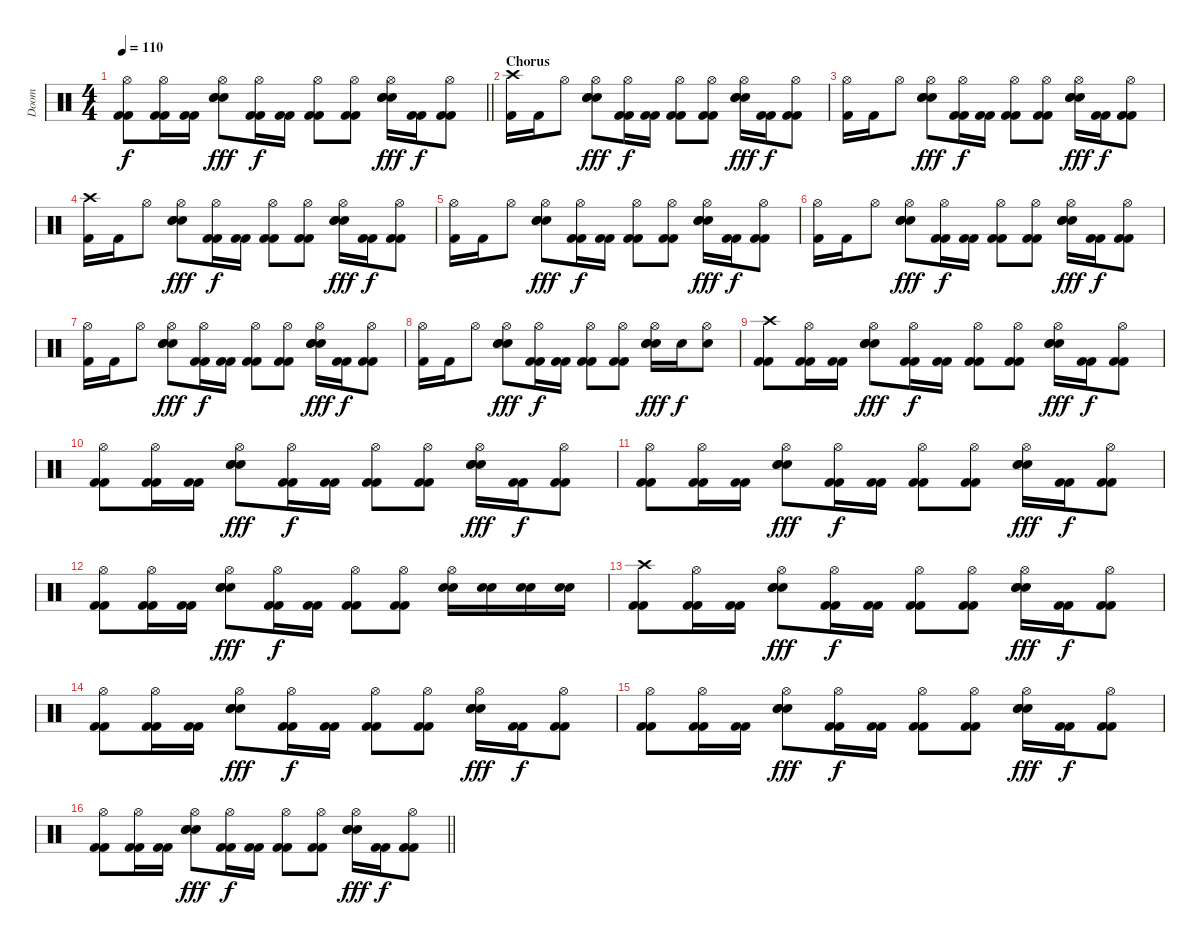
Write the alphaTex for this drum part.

\track ("Doom" "Doom") {instrument percussion}
\staff {score}
\articulation defaults
\ts (4 4)
\tempo 110
\clef neutral
\barLineRight lightlight
\ks c
("Hi-Hat (open)" "Kick (hit) 2" "Kick (hit) 2").8{dy f} ("Hi-Hat (open)" "Kick (hit) 2" "Kick (hit) 2").16 ("Kick (hit) 2" "Kick (hit) 2").16 ("Hi-Hat (open)" "Electric Snare (hit)" "Electric Snare (hit)" "Electric Snare (hit)").8{dy fff} ("Hi-Hat (open)" "Kick (hit) 2" "Kick (hit) 2").16{dy f} ("Kick (hit) 2" "Kick (hit) 2").16 ("Hi-Hat (open)" "Kick (hit) 2" "Kick (hit) 2").8 ("Hi-Hat (open)" "Kick (hit) 2" "Kick (hit) 2").8 ("Hi-Hat (open)" "Electric Snare (hit)" "Electric Snare (hit)" "Electric Snare (hit)").16{dy fff} ("Kick (hit) 2" "Kick (hit) 2").16{dy f} ("Hi-Hat (open)" "Kick (hit) 2" "Kick (hit) 2").8 |
\section ("" "Chorus")
("Crash high (hit)" "Kick (hit) 2").16 "Kick (hit) 2".16 "Hi-Hat (open)".8 ("Hi-Hat (open)" "Electric Snare (hit)" "Electric Snare (hit)" "Electric Snare (hit)").8{dy fff} ("Hi-Hat (open)" "Kick (hit) 2" "Kick (hit) 2").16{dy f} ("Kick (hit) 2" "Kick (hit) 2").16 ("Hi-Hat (open)" "Kick (hit) 2" "Kick (hit) 2").8 ("Hi-Hat (open)" "Kick (hit) 2" "Kick (hit) 2").8 ("Hi-Hat (open)" "Electric Snare (hit)" "Electric Snare (hit)" "Electric Snare (hit)").16{dy fff} ("Kick (hit) 2" "Kick (hit) 2").16{dy f} ("Hi-Hat (open)" "Kick (hit) 2" "Kick (hit) 2").8 |
("Hi-Hat (open)" "Kick (hit) 2").16 "Kick (hit) 2".16 "Hi-Hat (open)".8 ("Hi-Hat (open)" "Electric Snare (hit)" "Electric Snare (hit)" "Electric Snare (hit)").8{dy fff} ("Hi-Hat (open)" "Kick (hit) 2" "Kick (hit) 2").16{dy f} ("Kick (hit) 2" "Kick (hit) 2").16 ("Hi-Hat (open)" "Kick (hit) 2" "Kick (hit) 2").8 ("Hi-Hat (open)" "Kick (hit) 2" "Kick (hit) 2").8 ("Hi-Hat (open)" "Electric Snare (hit)" "Electric Snare (hit)" "Electric Snare (hit)").16{dy fff} ("Kick (hit) 2" "Kick (hit) 2").16{dy f} ("Hi-Hat (open)" "Kick (hit) 2" "Kick (hit) 2").8 |
("Crash high (hit)" "Kick (hit) 2").16 "Kick (hit) 2".16 "Hi-Hat (open)".8 ("Hi-Hat (open)" "Electric Snare (hit)" "Electric Snare (hit)" "Electric Snare (hit)").8{dy fff} ("Hi-Hat (open)" "Kick (hit) 2" "Kick (hit) 2").16{dy f} ("Kick (hit) 2" "Kick (hit) 2").16 ("Hi-Hat (open)" "Kick (hit) 2" "Kick (hit) 2").8 ("Hi-Hat (open)" "Kick (hit) 2" "Kick (hit) 2").8 ("Hi-Hat (open)" "Electric Snare (hit)" "Electric Snare (hit)" "Electric Snare (hit)").16{dy fff} ("Kick (hit) 2" "Kick (hit) 2").16{dy f} ("Hi-Hat (open)" "Kick (hit) 2" "Kick (hit) 2").8 |
("Hi-Hat (open)" "Kick (hit) 2").16 "Kick (hit) 2".16 "Hi-Hat (open)".8 ("Hi-Hat (open)" "Electric Snare (hit)" "Electric Snare (hit)" "Electric Snare (hit)").8{dy fff} ("Hi-Hat (open)" "Kick (hit) 2" "Kick (hit) 2").16{dy f} ("Kick (hit) 2" "Kick (hit) 2").16 ("Hi-Hat (open)" "Kick (hit) 2" "Kick (hit) 2").8 ("Hi-Hat (open)" "Kick (hit) 2" "Kick (hit) 2").8 ("Hi-Hat (open)" "Electric Snare (hit)" "Electric Snare (hit)" "Electric Snare (hit)").16{dy fff} ("Kick (hit) 2" "Kick (hit) 2").16{dy f} ("Hi-Hat (open)" "Kick (hit) 2" "Kick (hit) 2").8 |
("Hi-Hat (open)" "Kick (hit) 2").16 "Kick (hit) 2".16 "Hi-Hat (open)".8 ("Hi-Hat (open)" "Electric Snare (hit)" "Electric Snare (hit)" "Electric Snare (hit)").8{dy fff} ("Hi-Hat (open)" "Kick (hit) 2" "Kick (hit) 2").16{dy f} ("Kick (hit) 2" "Kick (hit) 2").16 ("Hi-Hat (open)" "Kick (hit) 2" "Kick (hit) 2").8 ("Hi-Hat (open)" "Kick (hit) 2" "Kick (hit) 2").8 ("Hi-Hat (open)" "Electric Snare (hit)" "Electric Snare (hit)" "Electric Snare (hit)").16{dy fff} ("Kick (hit) 2" "Kick (hit) 2").16{dy f} ("Hi-Hat (open)" "Kick (hit) 2" "Kick (hit) 2").8 |
("Hi-Hat (open)" "Kick (hit) 2").16 "Kick (hit) 2".16 "Hi-Hat (open)".8 ("Hi-Hat (open)" "Electric Snare (hit)" "Electric Snare (hit)" "Electric Snare (hit)").8{dy fff} ("Hi-Hat (open)" "Kick (hit) 2" "Kick (hit) 2").16{dy f} ("Kick (hit) 2" "Kick (hit) 2").16 ("Hi-Hat (open)" "Kick (hit) 2" "Kick (hit) 2").8 ("Hi-Hat (open)" "Kick (hit) 2" "Kick (hit) 2").8 ("Hi-Hat (open)" "Electric Snare (hit)" "Electric Snare (hit)" "Electric Snare (hit)").16{dy fff} ("Kick (hit) 2" "Kick (hit) 2").16{dy f} ("Hi-Hat (open)" "Kick (hit) 2" "Kick (hit) 2").8 |
("Hi-Hat (open)" "Kick (hit) 2").16 "Kick (hit) 2".16 "Hi-Hat (open)".8 ("Hi-Hat (open)" "Electric Snare (hit)" "Electric Snare (hit)" "Electric Snare (hit)").8{dy fff} ("Hi-Hat (open)" "Kick (hit) 2" "Kick (hit) 2").16{dy f} ("Kick (hit) 2" "Kick (hit) 2").16 ("Hi-Hat (open)" "Kick (hit) 2" "Kick (hit) 2").8 ("Hi-Hat (open)" "Kick (hit) 2" "Kick (hit) 2").8 ("Hi-Hat (open)" "Electric Snare (hit)" "Electric Snare (hit)" "Electric Snare (hit)").16{dy fff} "Electric Snare (hit)".16{dy f} ("Electric Snare (hit)" "Hi-Hat (open)").8 |
("Crash high (hit)" "Kick (hit) 2" "Kick (hit) 2").8 ("Hi-Hat (open)" "Kick (hit) 2" "Kick (hit) 2").16 ("Kick (hit) 2" "Kick (hit) 2").16 ("Hi-Hat (open)" "Electric Snare (hit)" "Electric Snare (hit)" "Electric Snare (hit)").8{dy fff} ("Hi-Hat (open)" "Kick (hit) 2" "Kick (hit) 2").16{dy f} ("Kick (hit) 2" "Kick (hit) 2").16 ("Hi-Hat (open)" "Kick (hit) 2" "Kick (hit) 2").8 ("Hi-Hat (open)" "Kick (hit) 2" "Kick (hit) 2").8 ("Hi-Hat (open)" "Electric Snare (hit)" "Electric Snare (hit)" "Electric Snare (hit)").16{dy fff} ("Kick (hit) 2" "Kick (hit) 2").16{dy f} ("Hi-Hat (open)" "Kick (hit) 2" "Kick (hit) 2").8 |
("Hi-Hat (open)" "Kick (hit) 2" "Kick (hit) 2").8 ("Hi-Hat (open)" "Kick (hit) 2" "Kick (hit) 2").16 ("Kick (hit) 2" "Kick (hit) 2").16 ("Hi-Hat (open)" "Electric Snare (hit)" "Electric Snare (hit)" "Electric Snare (hit)").8{dy fff} ("Hi-Hat (open)" "Kick (hit) 2" "Kick (hit) 2").16{dy f} ("Kick (hit) 2" "Kick (hit) 2").16 ("Hi-Hat (open)" "Kick (hit) 2" "Kick (hit) 2").8 ("Hi-Hat (open)" "Kick (hit) 2" "Kick (hit) 2").8 ("Hi-Hat (open)" "Electric Snare (hit)" "Electric Snare (hit)" "Electric Snare (hit)").16{dy fff} ("Kick (hit) 2" "Kick (hit) 2").16{dy f} ("Hi-Hat (open)" "Kick (hit) 2" "Kick (hit) 2").8 |
("Hi-Hat (open)" "Kick (hit) 2" "Kick (hit) 2").8 ("Hi-Hat (open)" "Kick (hit) 2" "Kick (hit) 2").16 ("Kick (hit) 2" "Kick (hit) 2").16 ("Hi-Hat (open)" "Electric Snare (hit)" "Electric Snare (hit)" "Electric Snare (hit)").8{dy fff} ("Hi-Hat (open)" "Kick (hit) 2" "Kick (hit) 2").16{dy f} ("Kick (hit) 2" "Kick (hit) 2").16 ("Hi-Hat (open)" "Kick (hit) 2" "Kick (hit) 2").8 ("Hi-Hat (open)" "Kick (hit) 2" "Kick (hit) 2").8 ("Hi-Hat (open)" "Electric Snare (hit)" "Electric Snare (hit)" "Electric Snare (hit)").16{dy fff} ("Kick (hit) 2" "Kick (hit) 2").16{dy f} ("Hi-Hat (open)" "Kick (hit) 2" "Kick (hit) 2").8 |
("Hi-Hat (open)" "Kick (hit) 2" "Kick (hit) 2").8 ("Hi-Hat (open)" "Kick (hit) 2" "Kick (hit) 2").16 ("Kick (hit) 2" "Kick (hit) 2").16 ("Hi-Hat (open)" "Electric Snare (hit)" "Electric Snare (hit)" "Electric Snare (hit)").8{dy fff} ("Hi-Hat (open)" "Kick (hit) 2" "Kick (hit) 2").16{dy f} ("Kick (hit) 2" "Kick (hit) 2").16 ("Hi-Hat (open)" "Kick (hit) 2" "Kick (hit) 2").8 ("Hi-Hat (open)" "Kick (hit) 2" "Kick (hit) 2").8 ("Electric Snare (hit)" "Hi-Hat (open)" "Electric Snare (hit)").16 ("Electric Snare (hit)" "Electric Snare (hit)").16 ("Electric Snare (hit)" "Electric Snare (hit)").16 ("Electric Snare (hit)" "Electric Snare (hit)").16 |
("Crash high (hit)" "Kick (hit) 2" "Kick (hit) 2").8 ("Hi-Hat (open)" "Kick (hit) 2" "Kick (hit) 2").16 ("Kick (hit) 2" "Kick (hit) 2").16 ("Hi-Hat (open)" "Electric Snare (hit)" "Electric Snare (hit)" "Electric Snare (hit)").8{dy fff} ("Hi-Hat (open)" "Kick (hit) 2" "Kick (hit) 2").16{dy f} ("Kick (hit) 2" "Kick (hit) 2").16 ("Hi-Hat (open)" "Kick (hit) 2" "Kick (hit) 2").8 ("Hi-Hat (open)" "Kick (hit) 2" "Kick (hit) 2").8 ("Hi-Hat (open)" "Electric Snare (hit)" "Electric Snare (hit)" "Electric Snare (hit)").16{dy fff} ("Kick (hit) 2" "Kick (hit) 2").16{dy f} ("Hi-Hat (open)" "Kick (hit) 2" "Kick (hit) 2").8 |
("Hi-Hat (open)" "Kick (hit) 2" "Kick (hit) 2").8 ("Hi-Hat (open)" "Kick (hit) 2" "Kick (hit) 2").16 ("Kick (hit) 2" "Kick (hit) 2").16 ("Hi-Hat (open)" "Electric Snare (hit)" "Electric Snare (hit)" "Electric Snare (hit)").8{dy fff} ("Hi-Hat (open)" "Kick (hit) 2" "Kick (hit) 2").16{dy f} ("Kick (hit) 2" "Kick (hit) 2").16 ("Hi-Hat (open)" "Kick (hit) 2" "Kick (hit) 2").8 ("Hi-Hat (open)" "Kick (hit) 2" "Kick (hit) 2").8 ("Hi-Hat (open)" "Electric Snare (hit)" "Electric Snare (hit)" "Electric Snare (hit)").16{dy fff} ("Kick (hit) 2" "Kick (hit) 2").16{dy f} ("Hi-Hat (open)" "Kick (hit) 2" "Kick (hit) 2").8 |
("Hi-Hat (open)" "Kick (hit) 2" "Kick (hit) 2").8 ("Hi-Hat (open)" "Kick (hit) 2" "Kick (hit) 2").16 ("Kick (hit) 2" "Kick (hit) 2").16 ("Hi-Hat (open)" "Electric Snare (hit)" "Electric Snare (hit)" "Electric Snare (hit)").8{dy fff} ("Hi-Hat (open)" "Kick (hit) 2" "Kick (hit) 2").16{dy f} ("Kick (hit) 2" "Kick (hit) 2").16 ("Hi-Hat (open)" "Kick (hit) 2" "Kick (hit) 2").8 ("Hi-Hat (open)" "Kick (hit) 2" "Kick (hit) 2").8 ("Hi-Hat (open)" "Electric Snare (hit)" "Electric Snare (hit)" "Electric Snare (hit)").16{dy fff} ("Kick (hit) 2" "Kick (hit) 2").16{dy f} ("Hi-Hat (open)" "Kick (hit) 2" "Kick (hit) 2").8 |
\barLineRight lightlight
("Hi-Hat (open)" "Kick (hit) 2" "Kick (hit) 2").8 ("Hi-Hat (open)" "Kick (hit) 2" "Kick (hit) 2").16 ("Kick (hit) 2" "Kick (hit) 2").16 ("Hi-Hat (open)" "Electric Snare (hit)" "Electric Snare (hit)" "Electric Snare (hit)").8{dy fff} ("Hi-Hat (open)" "Kick (hit) 2" "Kick (hit) 2").16{dy f} ("Kick (hit) 2" "Kick (hit) 2").16 ("Hi-Hat (open)" "Kick (hit) 2" "Kick (hit) 2").8 ("Hi-Hat (open)" "Kick (hit) 2" "Kick (hit) 2").8 ("Hi-Hat (open)" "Electric Snare (hit)" "Electric Snare (hit)" "Electric Snare (hit)").16{dy fff} ("Kick (hit) 2" "Kick (hit) 2").16{dy f} ("Hi-Hat (open)" "Kick (hit) 2" "Kick (hit) 2").8
